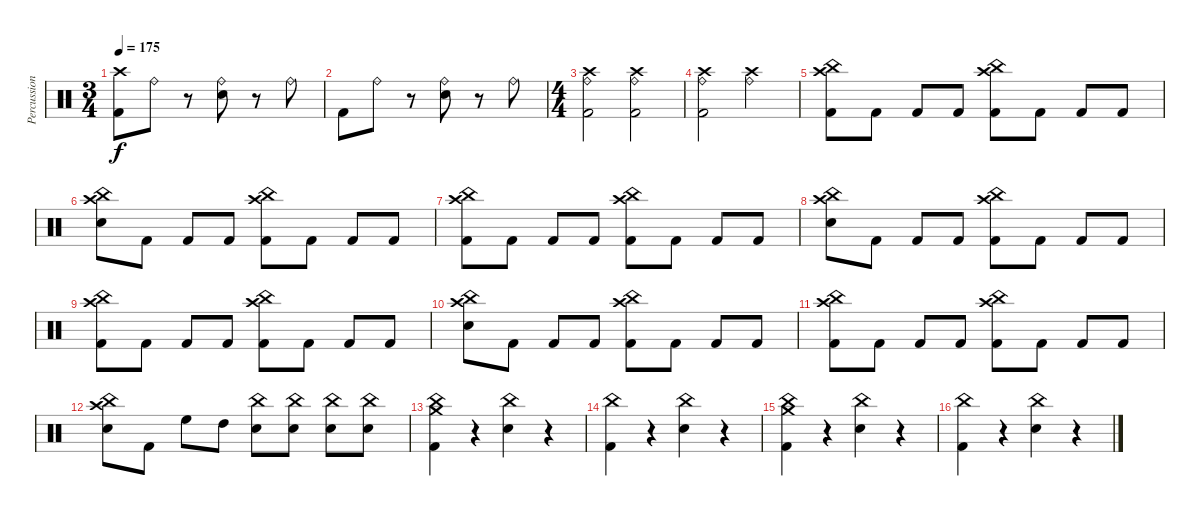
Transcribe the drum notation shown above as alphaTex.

\track ("Percussion" "Percussion") {instrument percussion}
\staff {score}
\articulation defaults
\ts (3 4)
\tempo 175
\clef neutral
\ks c
("Crash high (hit)" "Kick (hit) 2").8{dy f} "Ride (bell)".8 r.8 ("Ride (bell)" "Electric Snare (hit)").8 r.8 "Ride (bell)".8 |
"Kick (hit) 2".8 "Ride (bell)".8 r.8 ("Ride (bell)" "Electric Snare (hit)").8 r.8 "Ride (bell)".8 |
\ts (4 4)
("Crash high (hit)" "Ride (bell)" "Kick (hit) 2").2 ("Crash high (hit)" "Ride (bell)" "Kick (hit) 2").2 |
("Crash high (hit)" "Ride (bell)" "Kick (hit) 2").2 ("Crash high (hit)" "Ride (bell)").2 |
("Crash high (hit)" "China (hit)" "Kick (hit) 2").8 "Kick (hit) 2".8 "Kick (hit) 2".8 "Kick (hit) 2".8 ("Crash high (hit)" "China (hit)" "Kick (hit) 2").8 "Kick (hit) 2".8 "Kick (hit) 2".8 "Kick (hit) 2".8 |
("Crash high (hit)" "China (hit)" "Electric Snare (hit)").8 "Kick (hit) 2".8 "Kick (hit) 2".8 "Kick (hit) 2".8 ("Crash high (hit)" "China (hit)" "Kick (hit) 2").8 "Kick (hit) 2".8 "Kick (hit) 2".8 "Kick (hit) 2".8 |
("Crash high (hit)" "China (hit)" "Kick (hit) 2").8 "Kick (hit) 2".8 "Kick (hit) 2".8 "Kick (hit) 2".8 ("Crash high (hit)" "China (hit)" "Kick (hit) 2").8 "Kick (hit) 2".8 "Kick (hit) 2".8 "Kick (hit) 2".8 |
("Crash high (hit)" "China (hit)" "Electric Snare (hit)").8 "Kick (hit) 2".8 "Kick (hit) 2".8 "Kick (hit) 2".8 ("Crash high (hit)" "China (hit)" "Kick (hit) 2").8 "Kick (hit) 2".8 "Kick (hit) 2".8 "Kick (hit) 2".8 |
("Crash high (hit)" "China (hit)" "Kick (hit) 2").8 "Kick (hit) 2".8 "Kick (hit) 2".8 "Kick (hit) 2".8 ("Crash high (hit)" "China (hit)" "Kick (hit) 2").8 "Kick (hit) 2".8 "Kick (hit) 2".8 "Kick (hit) 2".8 |
("Crash high (hit)" "China (hit)" "Electric Snare (hit)").8 "Kick (hit) 2".8 "Kick (hit) 2".8 "Kick (hit) 2".8 ("Crash high (hit)" "China (hit)" "Kick (hit) 2").8 "Kick (hit) 2".8 "Kick (hit) 2".8 "Kick (hit) 2".8 |
("Crash high (hit)" "China (hit)" "Kick (hit) 2").8 "Kick (hit) 2".8 "Kick (hit) 2".8 "Kick (hit) 2".8 ("Crash high (hit)" "China (hit)" "Kick (hit) 2").8 "Kick (hit) 2".8 "Kick (hit) 2".8 "Kick (hit) 2".8 |
("Crash high (hit)" "China (hit)" "Electric Snare (hit)").8 "Kick (hit) 2".8 "High Floor Tom (hit)".8 "High Tom (hit)".8 ("China (hit)" "Electric Snare (hit)").8 ("China (hit)" "Electric Snare (hit)").8 ("China (hit)" "Electric Snare (hit)").8 ("China (hit)" "Electric Snare (hit)").8 |
("China (hit)" "Crash medium (hit)" "Kick (hit) 2").4 r.4 ("China (hit)" "Electric Snare (hit)").4 r.4 |
("China (hit)" "Kick (hit) 2").4 r.4 ("China (hit)" "Electric Snare (hit)").4 r.4 |
("China (hit)" "Crash medium (hit)" "Kick (hit) 2").4 r.4 ("China (hit)" "Electric Snare (hit)").4 r.4 |
("China (hit)" "Kick (hit) 2").4 r.4 ("China (hit)" "Electric Snare (hit)").4 r.4
